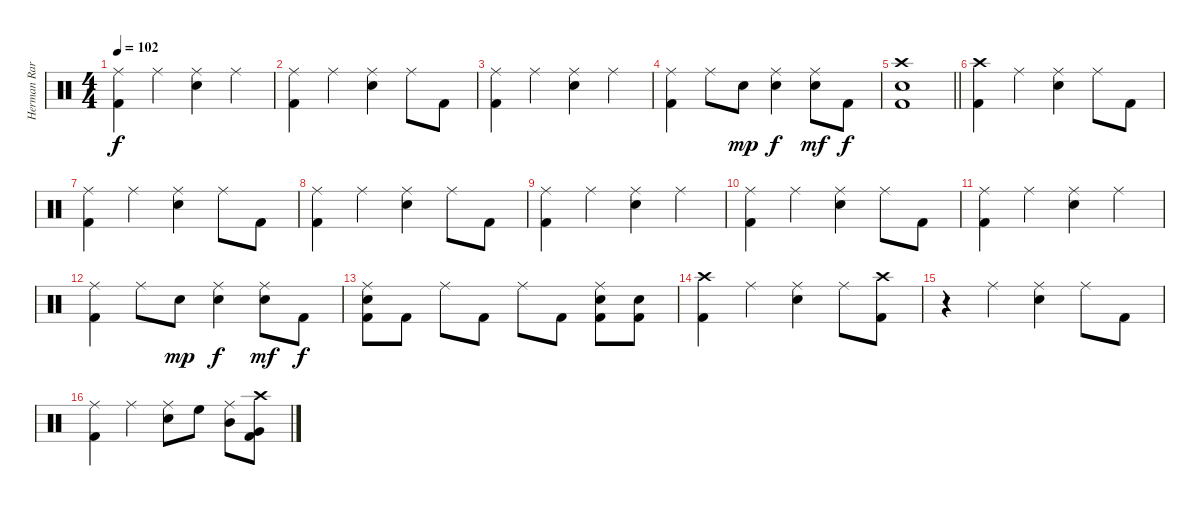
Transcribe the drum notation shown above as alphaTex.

\track ("Herman Rarebell" "Herman Rar") {instrument percussion}
\staff {score}
\articulation defaults
\ts (4 4)
\tempo 102
\clef neutral
\ks c
("Ride (middle)" "Kick (hit) 2").4{dy f} "Ride (middle)".4 ("Ride (middle)" "Electric Snare (hit)").4 "Ride (middle)".4 |
("Ride (middle)" "Kick (hit) 2").4 "Ride (middle)".4 ("Ride (middle)" "Electric Snare (hit)").4 "Ride (middle)".8 "Kick (hit) 2".8 |
("Ride (middle)" "Kick (hit) 2").4 "Ride (middle)".4 ("Ride (middle)" "Electric Snare (hit)").4 "Ride (middle)".4 |
("Ride (middle)" "Kick (hit) 2").4 "Ride (middle)".8 "Electric Snare (hit)".8{dy mp} ("Ride (middle)" "Electric Snare (hit)").4{dy f} ("Ride (middle)" "Electric Snare (hit)").8{dy mf} "Kick (hit) 2".8{dy f} |
\barLineRight lightlight
("Crash high (hit)" "Electric Snare (hit)" "Kick (hit) 2").1 |
("Crash high (hit)" "Kick (hit) 2").4 "Ride (middle)".4 ("Ride (middle)" "Electric Snare (hit)").4 "Ride (middle)".8 "Kick (hit) 2".8 |
("Ride (middle)" "Kick (hit) 2").4 "Ride (middle)".4 ("Ride (middle)" "Electric Snare (hit)").4 "Ride (middle)".8 "Kick (hit) 2".8 |
("Ride (middle)" "Kick (hit) 2").4 "Ride (middle)".4 ("Ride (middle)" "Electric Snare (hit)").4 "Ride (middle)".8 "Kick (hit) 2".8 |
("Ride (middle)" "Kick (hit) 2").4 "Ride (middle)".4 ("Ride (middle)" "Electric Snare (hit)").4 "Ride (middle)".4 |
("Ride (middle)" "Kick (hit) 2").4 "Ride (middle)".4 ("Ride (middle)" "Electric Snare (hit)").4 "Ride (middle)".8 "Kick (hit) 2".8 |
("Ride (middle)" "Kick (hit) 2").4 "Ride (middle)".4 ("Ride (middle)" "Electric Snare (hit)").4 "Ride (middle)".4 |
("Ride (middle)" "Kick (hit) 2").4 "Ride (middle)".8 "Electric Snare (hit)".8{dy mp} ("Ride (middle)" "Electric Snare (hit)").4{dy f} ("Ride (middle)" "Electric Snare (hit)").8{dy mf} "Kick (hit) 2".8{dy f} |
("Ride (middle)" "Electric Snare (hit)" "Kick (hit) 2").8 "Kick (hit) 2".8 "Ride (middle)".8 "Kick (hit) 2".8 "Ride (middle)".8 "Kick (hit) 2".8 ("Ride (middle)" "Electric Snare (hit)" "Kick (hit) 2").8 ("Electric Snare (hit)" "Kick (hit) 2").8 |
("Crash high (hit)" "Kick (hit) 2").4 "Ride (middle)".4 ("Ride (middle)" "Electric Snare (hit)").4 "Ride (middle)".8 ("Crash high (hit)" "Kick (hit) 2").8 |
r.4 "Ride (middle)".4 ("Ride (middle)" "Electric Snare (hit)").4 "Ride (middle)".8 "Kick (hit) 2".8 |
("Ride (middle)" "Kick (hit) 2").4 "Ride (middle)".4 ("Ride (middle)" "Electric Snare (hit)").8 "High Floor Tom (hit)".8 ("Ride (middle)" "Mid Tom (hit)").8 ("Crash high (hit)" "Very Low Tom (hit)" "Kick (hit) 2").8
